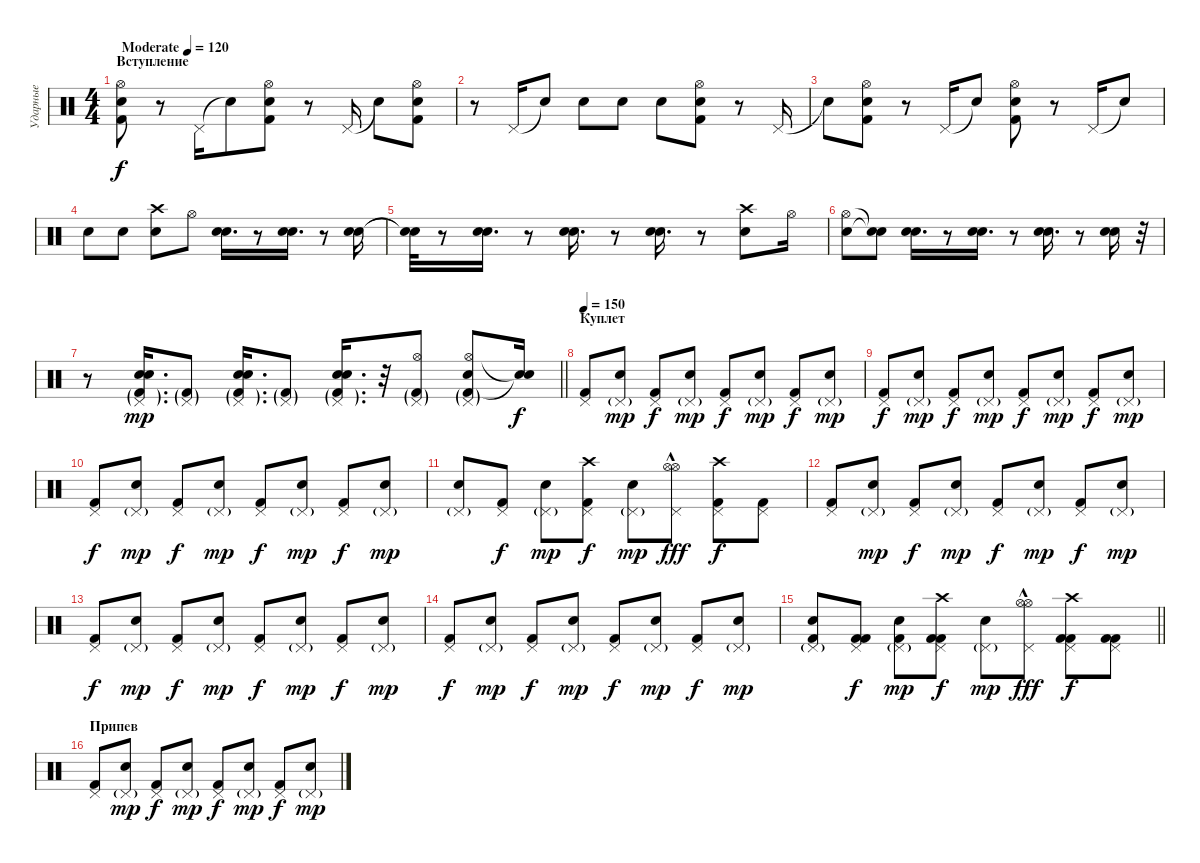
\track ("Ударные" "Ударные") {instrument percussion}
\staff {score}
\articulation defaults
\ts (4 4)
\section ("" "Вступление")
\tempo (120 "Moderate")
\clef neutral
\ks c
("Electric Snare (hit)" "Kick (hit) 2" "Hi-Hat (open)").8{dy f} r.8 "Pedal Hi-Hat (hit)".16 "Snare (hit)"{t}.8 ("Electric Snare (hit)" "Kick (hit) 2" "Hi-Hat (open)").8 r.8 "Pedal Hi-Hat (hit)".16 "Snare (hit)"{t}.8 ("Electric Snare (hit)" "Kick (hit) 2" "Hi-Hat (open)").8 |
r.8 "Pedal Hi-Hat (hit)".16 "Snare (hit)"{t}.8 "Electric Snare (hit)".8 "Electric Snare (hit)".8 "Electric Snare (hit)".8 ("Electric Snare (hit)" "Kick (hit) 2" "Hi-Hat (open)").8 r.8 "Pedal Hi-Hat (hit)".16 |
"Snare (hit)"{t}.8 ("Electric Snare (hit)" "Kick (hit) 2" "Hi-Hat (open)").8 r.8 "Pedal Hi-Hat (hit)".16 "Snare (hit)"{t}.8 ("Electric Snare (hit)" "Kick (hit) 2" "Hi-Hat (open)").8 r.8 "Pedal Hi-Hat (hit)".16 "Snare (hit)"{t}.8 |
"Electric Snare (hit)".8 "Electric Snare (hit)".8 ("Crash high (hit)" "Electric Snare (hit)").8 "Hi-Hat (open)".8 ("Electric Snare (hit)" "Snare (hit) 2").16{d} r.8 ("Electric Snare (hit)" "Snare (hit) 2").16{d} r.8 ("Electric Snare (hit)" "Snare (hit) 2").16 |
("Snare (hit)"{t} "Snare (hit)"{t}).32 r.8 ("Electric Snare (hit)" "Snare (hit) 2").16{d} r.8 ("Electric Snare (hit)" "Snare (hit) 2").16{d} r.8 ("Electric Snare (hit)" "Snare (hit) 2").16{d} r.8 ("Crash high (hit)" "Electric Snare (hit)").8 "Hi-Hat (open)".16 |
("Hi-Hat (open)" "Snare (hit) 2").8 ("Snare (hit)"{t} "Snare (hit)"{t}).8 ("Electric Snare (hit)" "Snare (hit) 2").16{d} r.8 ("Electric Snare (hit)" "Snare (hit) 2").16{d} r.8 ("Electric Snare (hit)" "Snare (hit) 2").16{d} r.8 ("Electric Snare (hit)" "Snare (hit) 2").16 r.32 |
\barLineRight lightlight
r.8 ("Kick (hit) 2"{g} "Electric Snare (hit)" "Snare (hit) 2" "Pedal Hi-Hat (hit)"{g}).16{d dy mp} ("Kick (hit) 2"{g} "Pedal Hi-Hat (hit)"{g}).8 ("Kick (hit) 2"{g} "Electric Snare (hit)" "Snare (hit) 2" "Pedal Hi-Hat (hit)"{g}).16{d} ("Kick (hit) 2"{g} "Pedal Hi-Hat (hit)"{g}).8 ("Kick (hit) 2"{g} "Electric Snare (hit)" "Snare (hit) 2" "Pedal Hi-Hat (hit)"{g}).16{d} r.32 ("Kick (hit) 2"{g} "Hi-Hat (open)" "Pedal Hi-Hat (hit)"{g}).8 ("Kick (hit) 2"{g} "Hi-Hat (open)" "Snare (hit) 2" "Pedal Hi-Hat (hit)"{g}).8 ("Snare (hit)"{t} "Snare (hit)"{t}).16{dy f} |
\section ("" "Куплет")
\tempo 150
("Kick (hit) 2" "Pedal Hi-Hat (hit)").8 ("Electric Snare (hit)" "Pedal Hi-Hat (hit)"{g}).8{dy mp} ("Kick (hit) 2" "Pedal Hi-Hat (hit)").8{dy f} ("Electric Snare (hit)" "Pedal Hi-Hat (hit)"{g}).8{dy mp} ("Kick (hit) 2" "Pedal Hi-Hat (hit)").8{dy f} ("Electric Snare (hit)" "Pedal Hi-Hat (hit)"{g}).8{dy mp} ("Kick (hit) 2" "Pedal Hi-Hat (hit)").8{dy f} ("Electric Snare (hit)" "Pedal Hi-Hat (hit)"{g}).8{dy mp} |
("Kick (hit) 2" "Pedal Hi-Hat (hit)").8{dy f} ("Electric Snare (hit)" "Pedal Hi-Hat (hit)"{g}).8{dy mp} ("Kick (hit) 2" "Pedal Hi-Hat (hit)").8{dy f} ("Electric Snare (hit)" "Pedal Hi-Hat (hit)"{g}).8{dy mp} ("Kick (hit) 2" "Pedal Hi-Hat (hit)").8{dy f} ("Electric Snare (hit)" "Pedal Hi-Hat (hit)"{g}).8{dy mp} ("Kick (hit) 2" "Pedal Hi-Hat (hit)").8{dy f} ("Electric Snare (hit)" "Pedal Hi-Hat (hit)"{g}).8{dy mp} |
("Kick (hit) 2" "Pedal Hi-Hat (hit)").8{dy f} ("Electric Snare (hit)" "Pedal Hi-Hat (hit)"{g}).8{dy mp} ("Kick (hit) 2" "Pedal Hi-Hat (hit)").8{dy f} ("Electric Snare (hit)" "Pedal Hi-Hat (hit)"{g}).8{dy mp} ("Kick (hit) 2" "Pedal Hi-Hat (hit)").8{dy f} ("Electric Snare (hit)" "Pedal Hi-Hat (hit)"{g}).8{dy mp} ("Kick (hit) 2" "Pedal Hi-Hat (hit)").8{dy f} ("Electric Snare (hit)" "Pedal Hi-Hat (hit)"{g}).8{dy mp} |
("Electric Snare (hit)" "Pedal Hi-Hat (hit)"{g}).8 ("Kick (hit) 2" "Pedal Hi-Hat (hit)").8{dy f} ("Electric Snare (hit)" "Pedal Hi-Hat (hit)"{g}).8{dy mp} ("Crash high (hit)" "Kick (hit) 2" "Pedal Hi-Hat (hit)").8{dy f} ("Electric Snare (hit)" "Pedal Hi-Hat (hit)"{g}).8{dy mp} ("Hi-Hat (open)"{hac} "Pedal Hi-Hat (hit)" "Hi-Hat (open)").8{dy fff} ("Crash high (hit)" "Kick (hit) 2" "Pedal Hi-Hat (hit)").8{dy f} ("Kick (hit) 2" "Pedal Hi-Hat (hit)").8 |
("Kick (hit) 2" "Pedal Hi-Hat (hit)").8 ("Electric Snare (hit)" "Pedal Hi-Hat (hit)"{g}).8{dy mp} ("Kick (hit) 2" "Pedal Hi-Hat (hit)").8{dy f} ("Electric Snare (hit)" "Pedal Hi-Hat (hit)"{g}).8{dy mp} ("Kick (hit) 2" "Pedal Hi-Hat (hit)").8{dy f} ("Electric Snare (hit)" "Pedal Hi-Hat (hit)"{g}).8{dy mp} ("Kick (hit) 2" "Pedal Hi-Hat (hit)").8{dy f} ("Electric Snare (hit)" "Pedal Hi-Hat (hit)"{g}).8{dy mp} |
("Kick (hit) 2" "Pedal Hi-Hat (hit)").8{dy f} ("Electric Snare (hit)" "Pedal Hi-Hat (hit)"{g}).8{dy mp} ("Kick (hit) 2" "Pedal Hi-Hat (hit)").8{dy f} ("Electric Snare (hit)" "Pedal Hi-Hat (hit)"{g}).8{dy mp} ("Kick (hit) 2" "Pedal Hi-Hat (hit)").8{dy f} ("Electric Snare (hit)" "Pedal Hi-Hat (hit)"{g}).8{dy mp} ("Kick (hit) 2" "Pedal Hi-Hat (hit)").8{dy f} ("Electric Snare (hit)" "Pedal Hi-Hat (hit)"{g}).8{dy mp} |
("Kick (hit) 2" "Pedal Hi-Hat (hit)").8{dy f} ("Electric Snare (hit)" "Pedal Hi-Hat (hit)"{g}).8{dy mp} ("Kick (hit) 2" "Pedal Hi-Hat (hit)").8{dy f} ("Electric Snare (hit)" "Pedal Hi-Hat (hit)"{g}).8{dy mp} ("Kick (hit) 2" "Pedal Hi-Hat (hit)").8{dy f} ("Electric Snare (hit)" "Pedal Hi-Hat (hit)"{g}).8{dy mp} ("Kick (hit) 2" "Pedal Hi-Hat (hit)").8{dy f} ("Electric Snare (hit)" "Pedal Hi-Hat (hit)"{g}).8{dy mp} |
\barLineRight lightlight
("Kick (hit) 2" "Electric Snare (hit)" "Pedal Hi-Hat (hit)"{g}).8 ("Kick (hit) 2" "Kick (hit) 2" "Pedal Hi-Hat (hit)").8{dy f} ("Kick (hit) 2" "Electric Snare (hit)" "Pedal Hi-Hat (hit)"{g}).8{dy mp} ("Kick (hit) 2" "Crash high (hit)" "Kick (hit) 2" "Pedal Hi-Hat (hit)").8{dy f} ("Electric Snare (hit)" "Pedal Hi-Hat (hit)"{g}).8{dy mp} ("Hi-Hat (open)"{hac} "Pedal Hi-Hat (hit)" "Hi-Hat (open)").8{dy fff} ("Kick (hit) 2" "Crash high (hit)" "Kick (hit) 2" "Pedal Hi-Hat (hit)").8{dy f} ("Kick (hit) 2" "Kick (hit) 2" "Pedal Hi-Hat (hit)").8 |
\section ("" "Припев")
("Kick (hit) 2" "Pedal Hi-Hat (hit)").8 ("Electric Snare (hit)" "Pedal Hi-Hat (hit)"{g}).8{dy mp} ("Kick (hit) 2" "Pedal Hi-Hat (hit)").8{dy f} ("Electric Snare (hit)" "Pedal Hi-Hat (hit)"{g}).8{dy mp} ("Kick (hit) 2" "Pedal Hi-Hat (hit)").8{dy f} ("Electric Snare (hit)" "Pedal Hi-Hat (hit)"{g}).8{dy mp} ("Kick (hit) 2" "Pedal Hi-Hat (hit)").8{dy f} ("Electric Snare (hit)" "Pedal Hi-Hat (hit)"{g}).8{dy mp}
